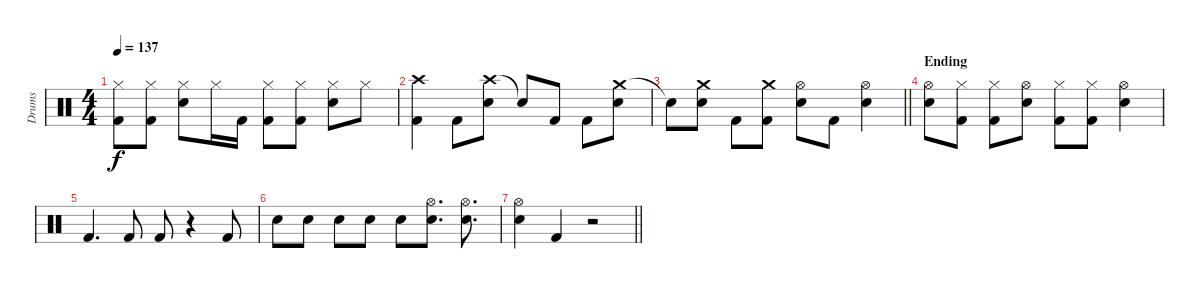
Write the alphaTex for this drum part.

\track ("Drums" "Drums") {instrument percussion}
\staff {score}
\articulation defaults
\ts (4 4)
\tempo 137
\clef neutral
\ks c
("Hi-Hat (closed)" "Kick (hit) 2").8{dy f} ("Hi-Hat (closed)" "Kick (hit) 2").8 ("Hi-Hat (closed)" "Snare (hit) 2").8 "Hi-Hat (closed)".16 "Kick (hit) 2".16 ("Hi-Hat (closed)" "Kick (hit) 2").8 ("Hi-Hat (closed)" "Kick (hit) 2").8 ("Hi-Hat (closed)" "Snare (hit) 2").8 "Hi-Hat (closed)".8 |
("Crash high (hit)" "Kick (hit) 2").4 "Kick (hit) 2".8 ("Crash high (hit)" "Snare (hit) 2").8 "Snare (hit)"{t}.8 "Kick (hit) 2".8 "Kick (hit) 2".8 ("Crash medium (hit)" "Snare (hit) 2").8 |
\barLineRight lightlight "Snare (hit)"{t}.8
("Crash medium (hit)" "Snare (hit) 2").8 "Kick (hit) 2".8 ("Crash medium (hit)" "Kick (hit) 2").8 ("Hi-Hat (open)" "Snare (hit) 2").8 "Kick (hit) 2".8 ("Hi-Hat (open)" "Snare (hit) 2").4 |
\section ("" "Ending")
("Hi-Hat (open)" "Snare (hit) 2").8 ("Hi-Hat (closed)" "Kick (hit) 2").8 ("Hi-Hat (closed)" "Kick (hit) 2").8 ("Hi-Hat (open)" "Snare (hit) 2").8 ("Hi-Hat (closed)" "Kick (hit) 2").8 ("Hi-Hat (closed)" "Kick (hit) 2").8 ("Hi-Hat (open)" "Snare (hit) 2").4 |
"Kick (hit) 2".4{d} "Kick (hit) 2".8 "Kick (hit) 2".8 r.4 "Kick (hit) 2".8 |
"Snare (hit) 2".8 "Snare (hit) 2".8 "Snare (hit) 2".8 "Snare (hit) 2".8 "Snare (hit) 2".8 ("Hi-Hat (open)" "Snare (hit) 2").8{d} ("Hi-Hat (open)" "Snare (hit) 2").8{d} |
\barLineRight lightlight
("Hi-Hat (open)" "Snare (hit) 2").4 "Kick (hit) 2".4 r.2
